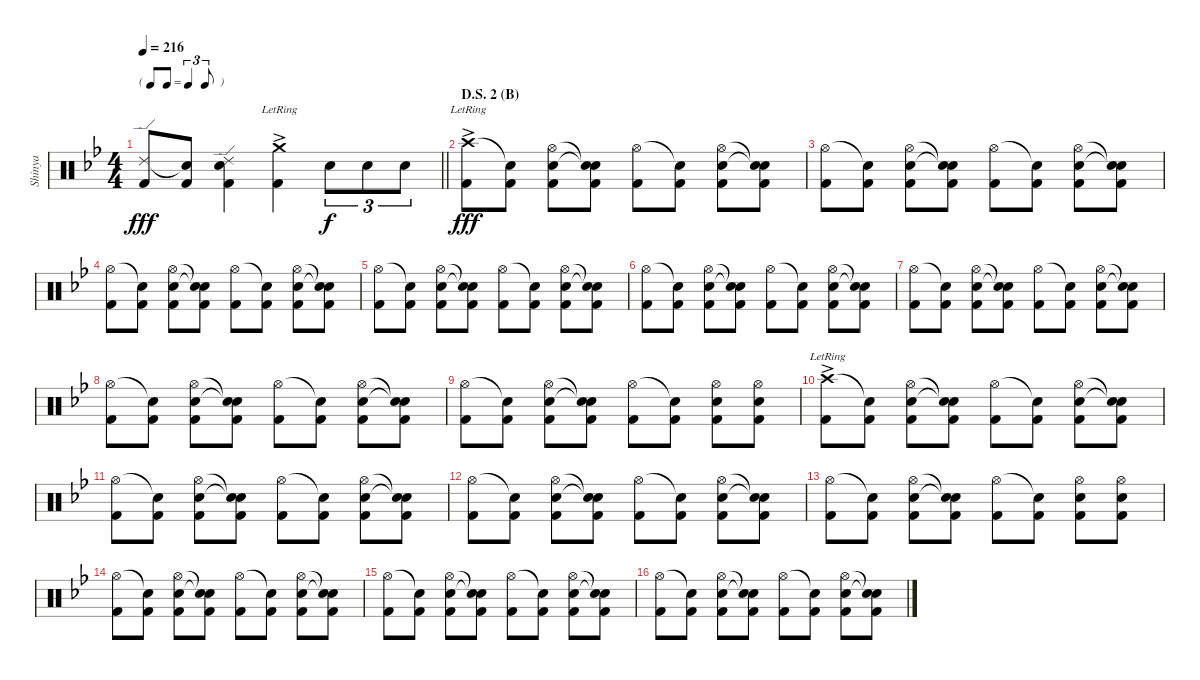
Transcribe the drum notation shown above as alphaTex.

\track ("Shinya" "Shinya") {instrument percussion}
\staff {score}
\articulation defaults
\ts (4 4)
\tf triplet8th
\tempo 216
\clef neutral
\barLineRight lightlight
\ks bb
("Ride (edge) 2" "Kick (hit) 2").8{dy fff} ("Snare (hit)"{t} "Kick (hit) 2").8 ("Ride (edge) 2" "Electric Snare (hit)" "Kick (hit) 2").4 ("Crash medium (hit)"{ac lr} "Kick (hit) 2").4 "Electric Snare (hit)".8{tu (3 2) dy f} "Electric Snare (hit)".8{tu (3 2)} "Electric Snare (hit)".8{tu (3 2)} |
\section ("" "D.S. 2 (B)")
("Crash high (hit)"{ac lr} "Kick (hit) 2").8{dy fff} ("Snare (hit)"{t} "Kick (hit) 2").8 ("Hi-Hat (open)" "Electric Snare (hit)" "Kick (hit) 2").8 ("Snare (hit)"{t} "Snare (hit)"{t} "Kick (hit) 2").8 ("Hi-Hat (open)" "Kick (hit) 2").8 ("Snare (hit)"{t} "Kick (hit) 2").8 ("Hi-Hat (open)" "Electric Snare (hit)" "Kick (hit) 2").8 ("Snare (hit)"{t} "Snare (hit)"{t} "Kick (hit) 2").8 |
("Hi-Hat (open)" "Kick (hit) 2").8 ("Snare (hit)"{t} "Kick (hit) 2").8 ("Hi-Hat (open)" "Electric Snare (hit)" "Kick (hit) 2").8 ("Snare (hit)"{t} "Snare (hit)"{t} "Kick (hit) 2").8 ("Hi-Hat (open)" "Kick (hit) 2").8 ("Snare (hit)"{t} "Kick (hit) 2").8 ("Hi-Hat (open)" "Electric Snare (hit)" "Kick (hit) 2").8 ("Snare (hit)"{t} "Snare (hit)"{t} "Kick (hit) 2").8 |
("Hi-Hat (open)" "Kick (hit) 2").8 ("Snare (hit)"{t} "Kick (hit) 2").8 ("Hi-Hat (open)" "Electric Snare (hit)" "Kick (hit) 2").8 ("Snare (hit)"{t} "Snare (hit)"{t} "Kick (hit) 2").8 ("Hi-Hat (open)" "Kick (hit) 2").8 ("Snare (hit)"{t} "Kick (hit) 2").8 ("Hi-Hat (open)" "Electric Snare (hit)" "Kick (hit) 2").8 ("Snare (hit)"{t} "Snare (hit)"{t} "Kick (hit) 2").8 |
("Hi-Hat (open)" "Kick (hit) 2").8 ("Snare (hit)"{t} "Kick (hit) 2").8 ("Hi-Hat (open)" "Electric Snare (hit)" "Kick (hit) 2").8 ("Snare (hit)"{t} "Snare (hit)"{t} "Kick (hit) 2").8 ("Hi-Hat (open)" "Kick (hit) 2").8 ("Snare (hit)"{t} "Kick (hit) 2").8 ("Hi-Hat (open)" "Electric Snare (hit)" "Kick (hit) 2").8 ("Snare (hit)"{t} "Snare (hit)"{t} "Kick (hit) 2").8 |
("Hi-Hat (open)" "Kick (hit) 2").8 ("Snare (hit)"{t} "Kick (hit) 2").8 ("Hi-Hat (open)" "Electric Snare (hit)" "Kick (hit) 2").8 ("Snare (hit)"{t} "Snare (hit)"{t} "Kick (hit) 2").8 ("Hi-Hat (open)" "Kick (hit) 2").8 ("Snare (hit)"{t} "Kick (hit) 2").8 ("Hi-Hat (open)" "Electric Snare (hit)" "Kick (hit) 2").8 ("Snare (hit)"{t} "Snare (hit)"{t} "Kick (hit) 2").8 |
("Hi-Hat (open)" "Kick (hit) 2").8 ("Snare (hit)"{t} "Kick (hit) 2").8 ("Hi-Hat (open)" "Electric Snare (hit)" "Kick (hit) 2").8 ("Snare (hit)"{t} "Snare (hit)"{t} "Kick (hit) 2").8 ("Hi-Hat (open)" "Kick (hit) 2").8 ("Snare (hit)"{t} "Kick (hit) 2").8 ("Hi-Hat (open)" "Electric Snare (hit)" "Kick (hit) 2").8 ("Snare (hit)"{t} "Snare (hit)"{t} "Kick (hit) 2").8 |
("Hi-Hat (open)" "Kick (hit) 2").8 ("Snare (hit)"{t} "Kick (hit) 2").8 ("Hi-Hat (open)" "Electric Snare (hit)" "Kick (hit) 2").8 ("Snare (hit)"{t} "Snare (hit)"{t} "Kick (hit) 2").8 ("Hi-Hat (open)" "Kick (hit) 2").8 ("Snare (hit)"{t} "Kick (hit) 2").8 ("Hi-Hat (open)" "Electric Snare (hit)" "Kick (hit) 2").8 ("Snare (hit)"{t} "Snare (hit)"{t} "Kick (hit) 2").8 |
("Hi-Hat (open)" "Kick (hit) 2").8 ("Snare (hit)"{t} "Kick (hit) 2").8 ("Hi-Hat (open)" "Electric Snare (hit)" "Kick (hit) 2").8 ("Snare (hit)"{t} "Snare (hit)"{t} "Kick (hit) 2").8 ("Hi-Hat (open)" "Kick (hit) 2").8 ("Snare (hit)"{t} "Kick (hit) 2").8 ("Hi-Hat (open)" "Electric Snare (hit)" "Kick (hit) 2").8 ("Hi-Hat (open)" "Electric Snare (hit)" "Kick (hit) 2").8 |
("Crash high (hit)"{ac lr} "Kick (hit) 2").8 ("Snare (hit)"{t} "Kick (hit) 2").8 ("Hi-Hat (open)" "Electric Snare (hit)" "Kick (hit) 2").8 ("Snare (hit)"{t} "Snare (hit)"{t} "Kick (hit) 2").8 ("Hi-Hat (open)" "Kick (hit) 2").8 ("Snare (hit)"{t} "Kick (hit) 2").8 ("Hi-Hat (open)" "Electric Snare (hit)" "Kick (hit) 2").8 ("Snare (hit)"{t} "Snare (hit)"{t} "Kick (hit) 2").8 |
("Hi-Hat (open)" "Kick (hit) 2").8 ("Snare (hit)"{t} "Kick (hit) 2").8 ("Hi-Hat (open)" "Electric Snare (hit)" "Kick (hit) 2").8 ("Snare (hit)"{t} "Snare (hit)"{t} "Kick (hit) 2").8 ("Hi-Hat (open)" "Kick (hit) 2").8 ("Snare (hit)"{t} "Kick (hit) 2").8 ("Hi-Hat (open)" "Electric Snare (hit)" "Kick (hit) 2").8 ("Snare (hit)"{t} "Snare (hit)"{t} "Kick (hit) 2").8 |
("Hi-Hat (open)" "Kick (hit) 2").8 ("Snare (hit)"{t} "Kick (hit) 2").8 ("Hi-Hat (open)" "Electric Snare (hit)" "Kick (hit) 2").8 ("Snare (hit)"{t} "Snare (hit)"{t} "Kick (hit) 2").8 ("Hi-Hat (open)" "Kick (hit) 2").8 ("Snare (hit)"{t} "Kick (hit) 2").8 ("Hi-Hat (open)" "Electric Snare (hit)" "Kick (hit) 2").8 ("Snare (hit)"{t} "Snare (hit)"{t} "Kick (hit) 2").8 |
("Hi-Hat (open)" "Kick (hit) 2").8 ("Snare (hit)"{t} "Kick (hit) 2").8 ("Hi-Hat (open)" "Electric Snare (hit)" "Kick (hit) 2").8 ("Snare (hit)"{t} "Snare (hit)"{t} "Kick (hit) 2").8 ("Hi-Hat (open)" "Kick (hit) 2").8 ("Snare (hit)"{t} "Kick (hit) 2").8 ("Hi-Hat (open)" "Electric Snare (hit)" "Kick (hit) 2").8 ("Hi-Hat (open)" "Electric Snare (hit)" "Kick (hit) 2").8 |
("Hi-Hat (open)" "Kick (hit) 2").8 ("Snare (hit)"{t} "Kick (hit) 2").8 ("Hi-Hat (open)" "Electric Snare (hit)" "Kick (hit) 2").8 ("Snare (hit)"{t} "Snare (hit)"{t} "Kick (hit) 2").8 ("Hi-Hat (open)" "Kick (hit) 2").8 ("Snare (hit)"{t} "Kick (hit) 2").8 ("Hi-Hat (open)" "Electric Snare (hit)" "Kick (hit) 2").8 ("Snare (hit)"{t} "Snare (hit)"{t} "Kick (hit) 2").8 |
("Hi-Hat (open)" "Kick (hit) 2").8 ("Snare (hit)"{t} "Kick (hit) 2").8 ("Hi-Hat (open)" "Electric Snare (hit)" "Kick (hit) 2").8 ("Snare (hit)"{t} "Snare (hit)"{t} "Kick (hit) 2").8 ("Hi-Hat (open)" "Kick (hit) 2").8 ("Snare (hit)"{t} "Kick (hit) 2").8 ("Hi-Hat (open)" "Electric Snare (hit)" "Kick (hit) 2").8 ("Snare (hit)"{t} "Snare (hit)"{t} "Kick (hit) 2").8 |
("Hi-Hat (open)" "Kick (hit) 2").8 ("Snare (hit)"{t} "Kick (hit) 2").8 ("Hi-Hat (open)" "Electric Snare (hit)" "Kick (hit) 2").8 ("Snare (hit)"{t} "Snare (hit)"{t} "Kick (hit) 2").8 ("Hi-Hat (open)" "Kick (hit) 2").8 ("Snare (hit)"{t} "Kick (hit) 2").8 ("Hi-Hat (open)" "Electric Snare (hit)" "Kick (hit) 2").8 ("Snare (hit)"{t} "Snare (hit)"{t} "Kick (hit) 2").8
